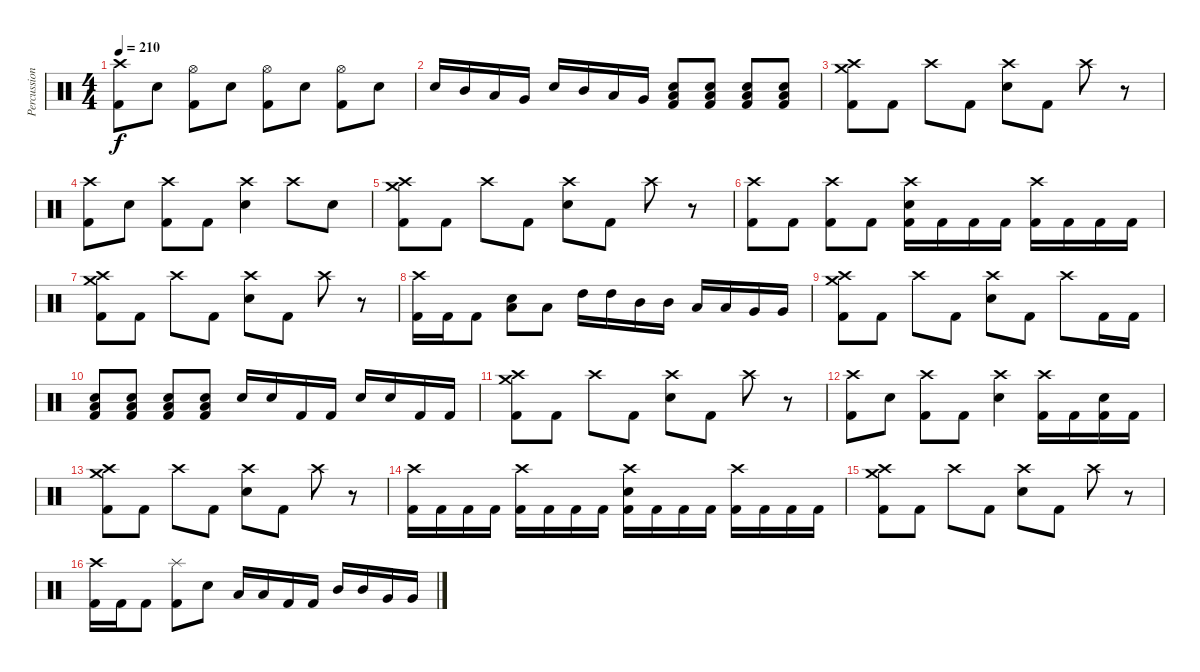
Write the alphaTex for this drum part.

\track ("Percussion" "Percussion") {instrument percussion}
\staff {score}
\articulation defaults
\ts (4 4)
\tempo 210
\clef neutral
\ks c
("Crash high (hit)" "Kick (hit) 2").8{dy f} "Electric Snare (hit)".8 ("Hi-Hat (open)" "Kick (hit) 2").8 "Electric Snare (hit)".8 ("Hi-Hat (open)" "Kick (hit) 2").8 "Electric Snare (hit)".8 ("Hi-Hat (open)" "Kick (hit) 2").8 "Electric Snare (hit)".8 |
"Electric Snare (hit)".16 "Mid Tom (hit)".16 "Low Tom (hit)".16 "Very Low Tom (hit)".16 "Electric Snare (hit)".16 "Mid Tom (hit)".16 "Low Tom (hit)".16 "Very Low Tom (hit)".16 ("Low Floor Tom (hit)" "Electric Snare (hit)" "Kick (hit) 2").8 ("Low Floor Tom (hit)" "Electric Snare (hit)" "Kick (hit) 2").8 ("Low Floor Tom (hit)" "Electric Snare (hit)" "Kick (hit) 2").8 ("Low Floor Tom (hit)" "Electric Snare (hit)" "Kick (hit) 2").8 |
("Crash high (hit)" "Crash medium (hit)" "Kick (hit) 2").8 "Kick (hit) 2".8 "Crash high (hit)".8 "Kick (hit) 2".8 ("Crash high (hit)" "Electric Snare (hit)").8 "Kick (hit) 2".8 "Crash high (hit)".8 r.8 |
("Crash high (hit)" "Kick (hit) 2").8 "Electric Snare (hit)".8 ("Crash high (hit)" "Kick (hit) 2").8 "Kick (hit) 2".8 ("Crash high (hit)" "Electric Snare (hit)").4 "Crash high (hit)".8 "Electric Snare (hit)".8 |
("Crash high (hit)" "Crash medium (hit)" "Kick (hit) 2").8 "Kick (hit) 2".8 "Crash high (hit)".8 "Kick (hit) 2".8 ("Crash high (hit)" "Electric Snare (hit)").8 "Kick (hit) 2".8 "Crash high (hit)".8 r.8 |
("Crash high (hit)" "Kick (hit) 2").8 "Kick (hit) 2".8 ("Crash high (hit)" "Kick (hit) 2").8 "Kick (hit) 2".8 ("Crash high (hit)" "Electric Snare (hit)" "Kick (hit) 2").16 "Kick (hit) 2".16 "Kick (hit) 2".16 "Kick (hit) 2".16 ("Crash high (hit)" "Kick (hit) 2").16 "Kick (hit) 2".16 "Kick (hit) 2".16 "Kick (hit) 2".16 |
("Crash high (hit)" "Crash medium (hit)" "Kick (hit) 2").8 "Kick (hit) 2".8 "Crash high (hit)".8 "Kick (hit) 2".8 ("Crash high (hit)" "Electric Snare (hit)").8 "Kick (hit) 2".8 "Crash high (hit)".8 r.8 |
("Crash high (hit)" "Kick (hit) 2").16 "Kick (hit) 2".16 "Kick (hit) 2".8 ("Electric Snare (hit)" "Low Floor Tom (hit)").8 "Low Tom (hit)".8 "High Tom (hit)".16 "High Tom (hit)".16 "Mid Tom (hit)".16 "Mid Tom (hit)".16 "Low Tom (hit)".16 "Low Tom (hit)".16 "Very Low Tom (hit)".16 "Very Low Tom (hit)".16 |
("Crash high (hit)" "Crash medium (hit)" "Kick (hit) 2").8 "Kick (hit) 2".8 "Crash high (hit)".8 "Kick (hit) 2".8 ("Crash high (hit)" "Electric Snare (hit)").8 "Kick (hit) 2".8 "Crash high (hit)".8 "Kick (hit) 2".16 "Kick (hit) 2".16 |
("Low Floor Tom (hit)" "Electric Snare (hit)" "Kick (hit) 2").8 ("Low Floor Tom (hit)" "Electric Snare (hit)" "Kick (hit) 2").8 ("Low Floor Tom (hit)" "Electric Snare (hit)" "Kick (hit) 2").8 ("Low Floor Tom (hit)" "Electric Snare (hit)" "Kick (hit) 2").8 "Electric Snare (hit)".16 "Electric Snare (hit)".16 "Kick (hit) 2".16 "Kick (hit) 2".16 "Electric Snare (hit)".16 "Electric Snare (hit)".16 "Kick (hit) 2".16 "Kick (hit) 2".16 |
("Crash high (hit)" "Crash medium (hit)" "Kick (hit) 2").8 "Kick (hit) 2".8 "Crash high (hit)".8 "Kick (hit) 2".8 ("Crash high (hit)" "Electric Snare (hit)").8 "Kick (hit) 2".8 "Crash high (hit)".8 r.8 |
("Crash high (hit)" "Kick (hit) 2").8 "Electric Snare (hit)".8 ("Crash high (hit)" "Kick (hit) 2").8 "Kick (hit) 2".8 ("Crash high (hit)" "Electric Snare (hit)").4 ("Crash high (hit)" "Kick (hit) 2").16 "Kick (hit) 2".16 ("Electric Snare (hit)" "Kick (hit) 2").16 "Kick (hit) 2".16 |
("Crash high (hit)" "Crash medium (hit)" "Kick (hit) 2").8 "Kick (hit) 2".8 "Crash high (hit)".8 "Kick (hit) 2".8 ("Crash high (hit)" "Electric Snare (hit)").8 "Kick (hit) 2".8 "Crash high (hit)".8 r.8 |
("Crash high (hit)" "Kick (hit) 2").16 "Kick (hit) 2".16 "Kick (hit) 2".16 "Kick (hit) 2".16 ("Crash high (hit)" "Kick (hit) 2").16 "Kick (hit) 2".16 "Kick (hit) 2".16 "Kick (hit) 2".16 ("Crash high (hit)" "Electric Snare (hit)" "Kick (hit) 2").16 "Kick (hit) 2".16 "Kick (hit) 2".16 "Kick (hit) 2".16 ("Crash high (hit)" "Kick (hit) 2").16 "Kick (hit) 2".16 "Kick (hit) 2".16 "Kick (hit) 2".16 |
("Crash high (hit)" "Crash medium (hit)" "Kick (hit) 2").8 "Kick (hit) 2".8 "Crash high (hit)".8 "Kick (hit) 2".8 ("Crash high (hit)" "Electric Snare (hit)").8 "Kick (hit) 2".8 "Crash high (hit)".8 r.8 |
("Crash high (hit)" "Kick (hit) 2").16 "Kick (hit) 2".16 "Kick (hit) 2".8 ("Splash (hit)" "Kick (hit) 2").8 "Electric Snare (hit)".8 "Low Tom (hit)".16 "Low Tom (hit)".16 "Kick (hit) 2".16 "Kick (hit) 2".16 "Mid Tom (hit)".16 "Mid Tom (hit)".16 "Very Low Tom (hit)".16 "Very Low Tom (hit)".16
